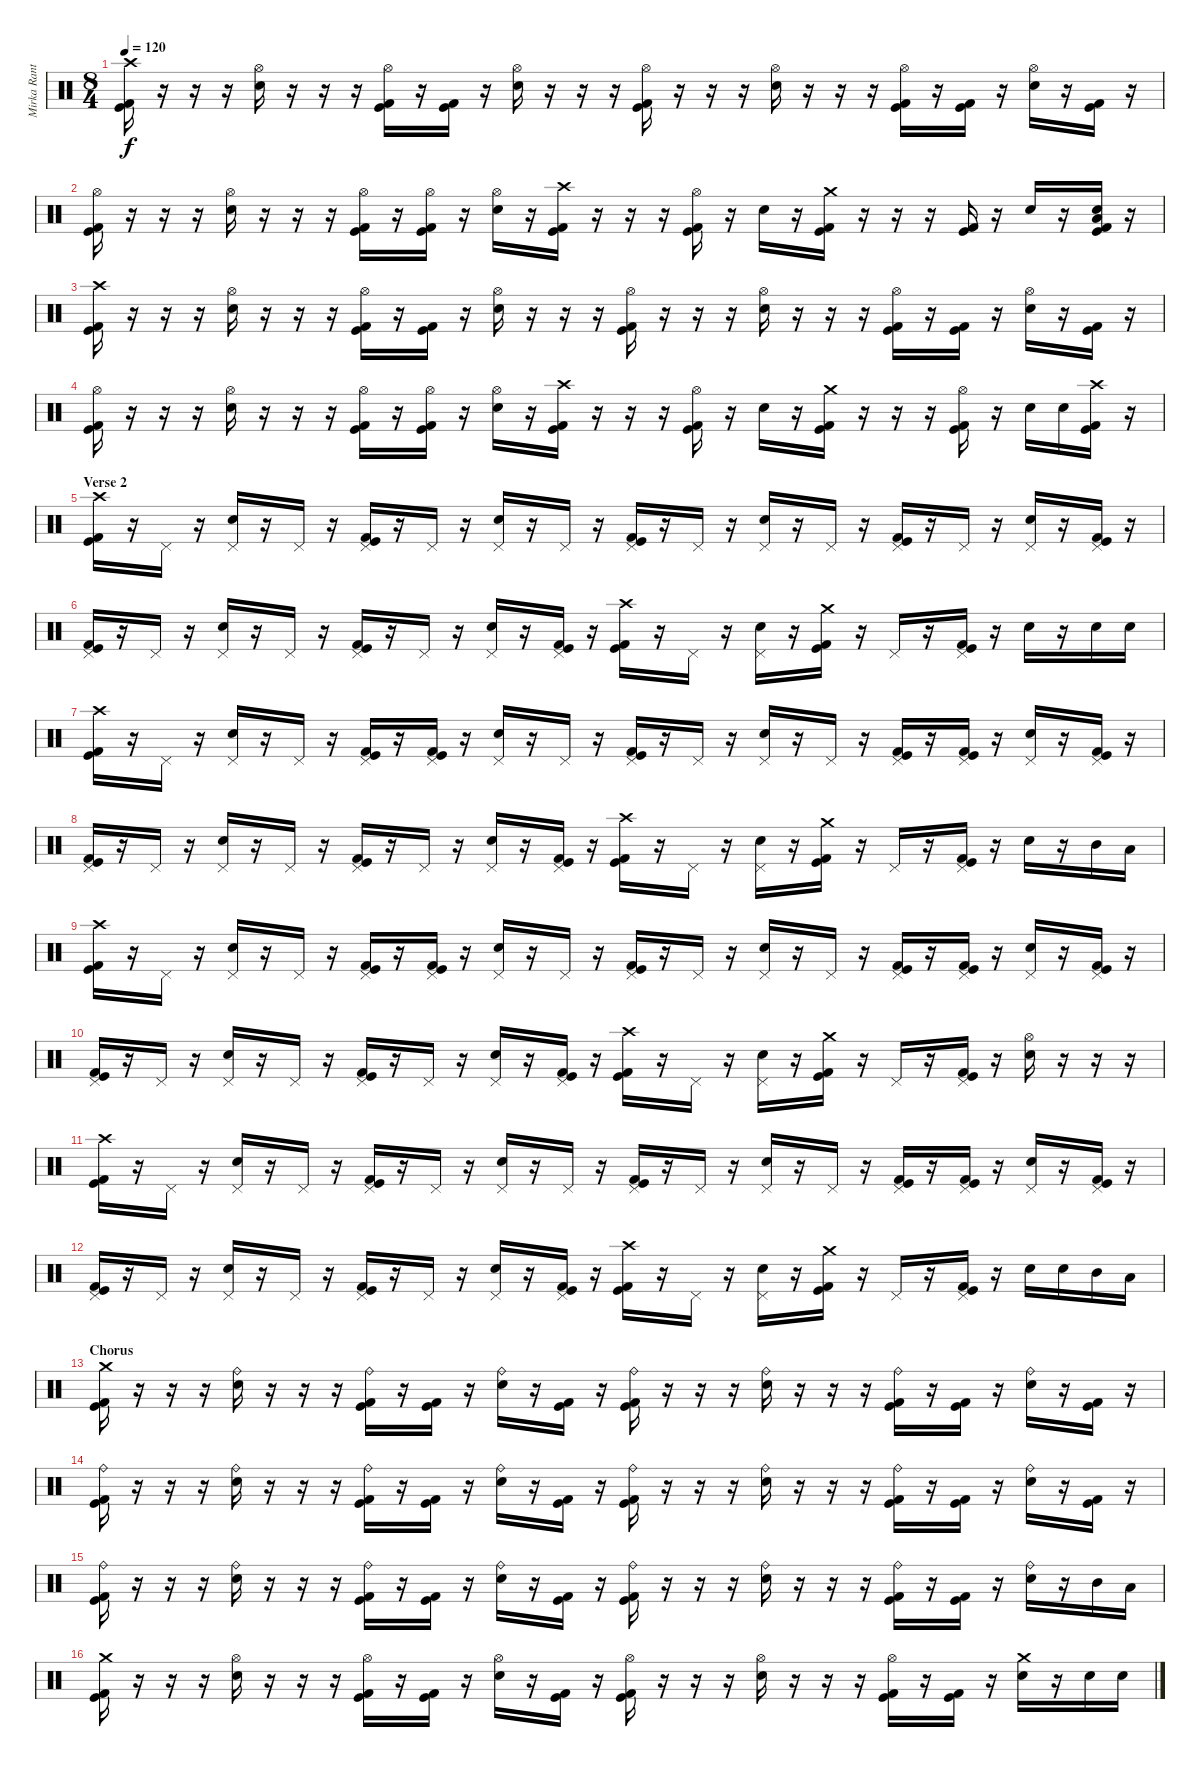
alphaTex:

\track ("Mirka Rantanen" "Mirka Rant") {instrument percussion}
\staff {score}
\articulation defaults
\ts (8 4)
\tempo 120
\clef neutral
\ks c
("Crash high (hit)" "Kick (hit) 2" "Kick (hit)").16{dy f} r.16 r.16 r.16 ("Hi-Hat (open)" "Electric Snare (hit)").16 r.16 r.16 r.16 ("Hi-Hat (open)" "Kick (hit) 2" "Kick (hit)").16 r.16 ("Kick (hit) 2" "Kick (hit)").16 r.16 ("Hi-Hat (open)" "Electric Snare (hit)").16 r.16 r.16 r.16 ("Hi-Hat (open)" "Kick (hit) 2" "Kick (hit)").16 r.16 r.16 r.16 ("Hi-Hat (open)" "Electric Snare (hit)").16 r.16 r.16 r.16 ("Hi-Hat (open)" "Kick (hit) 2" "Kick (hit)").16 r.16 ("Kick (hit) 2" "Kick (hit)").16 r.16 ("Hi-Hat (open)" "Electric Snare (hit)").16 r.16 ("Kick (hit) 2" "Kick (hit)").16 r.16 |
("Hi-Hat (open)" "Kick (hit) 2" "Kick (hit)").16 r.16 r.16 r.16 ("Hi-Hat (open)" "Electric Snare (hit)").16 r.16 r.16 r.16 ("Hi-Hat (open)" "Kick (hit) 2" "Kick (hit)").16 r.16 ("Hi-Hat (open)" "Kick (hit) 2" "Kick (hit)").16 r.16 ("Hi-Hat (open)" "Electric Snare (hit)").16 r.16 ("Crash high (hit)" "Kick (hit) 2" "Kick (hit)").16 r.16 r.16 r.16 ("Hi-Hat (open)" "Kick (hit) 2" "Kick (hit)").16 r.16 "Electric Snare (hit)".16 r.16 ("Crash medium (hit)" "Kick (hit) 2" "Kick (hit)").16 r.16 r.16 r.16 ("Kick (hit) 2" "Kick (hit)").16 r.16 "Electric Snare (hit)".16 r.16 ("Kick (hit) 2" "Kick (hit)" "Electric Snare (hit)" "Low Floor Tom (hit)").16 r.16 |
("Crash high (hit)" "Kick (hit) 2" "Kick (hit)").16 r.16 r.16 r.16 ("Hi-Hat (open)" "Electric Snare (hit)").16 r.16 r.16 r.16 ("Hi-Hat (open)" "Kick (hit) 2" "Kick (hit)").16 r.16 ("Kick (hit) 2" "Kick (hit)").16 r.16 ("Hi-Hat (open)" "Electric Snare (hit)").16 r.16 r.16 r.16 ("Hi-Hat (open)" "Kick (hit) 2" "Kick (hit)").16 r.16 r.16 r.16 ("Hi-Hat (open)" "Electric Snare (hit)").16 r.16 r.16 r.16 ("Hi-Hat (open)" "Kick (hit) 2" "Kick (hit)").16 r.16 ("Kick (hit) 2" "Kick (hit)").16 r.16 ("Hi-Hat (open)" "Electric Snare (hit)").16 r.16 ("Kick (hit) 2" "Kick (hit)").16 r.16 |
("Hi-Hat (open)" "Kick (hit) 2" "Kick (hit)").16 r.16 r.16 r.16 ("Hi-Hat (open)" "Electric Snare (hit)").16 r.16 r.16 r.16 ("Hi-Hat (open)" "Kick (hit) 2" "Kick (hit)").16 r.16 ("Hi-Hat (open)" "Kick (hit) 2" "Kick (hit)").16 r.16 ("Hi-Hat (open)" "Electric Snare (hit)").16 r.16 ("Crash high (hit)" "Kick (hit) 2" "Kick (hit)").16 r.16 r.16 r.16 ("Hi-Hat (open)" "Kick (hit) 2" "Kick (hit)").16 r.16 "Electric Snare (hit)".16 r.16 ("Crash medium (hit)" "Kick (hit) 2" "Kick (hit)").16 r.16 r.16 r.16 ("Hi-Hat (open)" "Kick (hit) 2" "Kick (hit)").16 r.16 "Electric Snare (hit)".16 "Electric Snare (hit)".16 ("Crash high (hit)" "Kick (hit) 2" "Kick (hit)").16 r.16 |
\section ("" "Verse 2")
("Crash high (hit)" "Kick (hit) 2" "Kick (hit)").16 r.16 "Pedal Hi-Hat (hit)".16 r.16 ("Pedal Hi-Hat (hit)" "Electric Snare (hit)").16 r.16 "Pedal Hi-Hat (hit)".16 r.16 ("Pedal Hi-Hat (hit)" "Kick (hit) 2" "Kick (hit)").16 r.16 "Pedal Hi-Hat (hit)".16 r.16 ("Pedal Hi-Hat (hit)" "Electric Snare (hit)").16 r.16 "Pedal Hi-Hat (hit)".16 r.16 ("Pedal Hi-Hat (hit)" "Kick (hit) 2" "Kick (hit)").16 r.16 "Pedal Hi-Hat (hit)".16 r.16 ("Pedal Hi-Hat (hit)" "Electric Snare (hit)").16 r.16 "Pedal Hi-Hat (hit)".16 r.16 ("Pedal Hi-Hat (hit)" "Kick (hit) 2" "Kick (hit)").16 r.16 "Pedal Hi-Hat (hit)".16 r.16 ("Pedal Hi-Hat (hit)" "Electric Snare (hit)").16 r.16 ("Pedal Hi-Hat (hit)" "Kick (hit) 2" "Kick (hit)").16 r.16 |
("Pedal Hi-Hat (hit)" "Kick (hit) 2" "Kick (hit)").16 r.16 "Pedal Hi-Hat (hit)".16 r.16 ("Pedal Hi-Hat (hit)" "Electric Snare (hit)").16 r.16 "Pedal Hi-Hat (hit)".16 r.16 ("Pedal Hi-Hat (hit)" "Kick (hit) 2" "Kick (hit)").16 r.16 "Pedal Hi-Hat (hit)".16 r.16 ("Pedal Hi-Hat (hit)" "Electric Snare (hit)").16 r.16 ("Pedal Hi-Hat (hit)" "Kick (hit) 2" "Kick (hit)").16 r.16 ("Crash high (hit)" "Kick (hit) 2" "Kick (hit)").16 r.16 "Pedal Hi-Hat (hit)".16 r.16 ("Pedal Hi-Hat (hit)" "Electric Snare (hit)").16 r.16 ("Crash medium (hit)" "Kick (hit) 2" "Kick (hit)").16 r.16 "Pedal Hi-Hat (hit)".16 r.16 ("Pedal Hi-Hat (hit)" "Kick (hit)" "Kick (hit) 2").16 r.16 "Electric Snare (hit)".16 r.16 "Electric Snare (hit)".16 "Electric Snare (hit)".16 |
("Crash high (hit)" "Kick (hit) 2" "Kick (hit)").16 r.16 "Pedal Hi-Hat (hit)".16 r.16 ("Pedal Hi-Hat (hit)" "Electric Snare (hit)").16 r.16 "Pedal Hi-Hat (hit)".16 r.16 ("Pedal Hi-Hat (hit)" "Kick (hit) 2" "Kick (hit)").16 r.16 ("Pedal Hi-Hat (hit)" "Kick (hit) 2" "Kick (hit)").16 r.16 ("Pedal Hi-Hat (hit)" "Electric Snare (hit)").16 r.16 "Pedal Hi-Hat (hit)".16 r.16 ("Pedal Hi-Hat (hit)" "Kick (hit) 2" "Kick (hit)").16 r.16 "Pedal Hi-Hat (hit)".16 r.16 ("Pedal Hi-Hat (hit)" "Electric Snare (hit)").16 r.16 "Pedal Hi-Hat (hit)".16 r.16 ("Pedal Hi-Hat (hit)" "Kick (hit) 2" "Kick (hit)").16 r.16 ("Pedal Hi-Hat (hit)" "Kick (hit) 2" "Kick (hit)").16 r.16 ("Pedal Hi-Hat (hit)" "Electric Snare (hit)").16 r.16 ("Pedal Hi-Hat (hit)" "Kick (hit) 2" "Kick (hit)").16 r.16 |
("Pedal Hi-Hat (hit)" "Kick (hit) 2" "Kick (hit)").16 r.16 "Pedal Hi-Hat (hit)".16 r.16 ("Pedal Hi-Hat (hit)" "Electric Snare (hit)").16 r.16 "Pedal Hi-Hat (hit)".16 r.16 ("Pedal Hi-Hat (hit)" "Kick (hit) 2" "Kick (hit)").16 r.16 "Pedal Hi-Hat (hit)".16 r.16 ("Pedal Hi-Hat (hit)" "Electric Snare (hit)").16 r.16 ("Pedal Hi-Hat (hit)" "Kick (hit) 2" "Kick (hit)").16 r.16 ("Crash high (hit)" "Kick (hit) 2" "Kick (hit)").16 r.16 "Pedal Hi-Hat (hit)".16 r.16 ("Pedal Hi-Hat (hit)" "Electric Snare (hit)").16 r.16 ("Crash medium (hit)" "Kick (hit) 2" "Kick (hit)").16 r.16 "Pedal Hi-Hat (hit)".16 r.16 ("Pedal Hi-Hat (hit)" "Kick (hit)" "Kick (hit) 2").16 r.16 "Electric Snare (hit)".16 r.16 "Mid Tom (hit)".16 "Low Tom (hit)".16 |
("Crash high (hit)" "Kick (hit) 2" "Kick (hit)").16 r.16 "Pedal Hi-Hat (hit)".16 r.16 ("Pedal Hi-Hat (hit)" "Electric Snare (hit)").16 r.16 "Pedal Hi-Hat (hit)".16 r.16 ("Pedal Hi-Hat (hit)" "Kick (hit) 2" "Kick (hit)").16 r.16 ("Pedal Hi-Hat (hit)" "Kick (hit) 2" "Kick (hit)").16 r.16 ("Pedal Hi-Hat (hit)" "Electric Snare (hit)").16 r.16 "Pedal Hi-Hat (hit)".16 r.16 ("Pedal Hi-Hat (hit)" "Kick (hit) 2" "Kick (hit)").16 r.16 "Pedal Hi-Hat (hit)".16 r.16 ("Pedal Hi-Hat (hit)" "Electric Snare (hit)").16 r.16 "Pedal Hi-Hat (hit)".16 r.16 ("Pedal Hi-Hat (hit)" "Kick (hit) 2" "Kick (hit)").16 r.16 ("Pedal Hi-Hat (hit)" "Kick (hit) 2" "Kick (hit)").16 r.16 ("Pedal Hi-Hat (hit)" "Electric Snare (hit)").16 r.16 ("Pedal Hi-Hat (hit)" "Kick (hit) 2" "Kick (hit)").16 r.16 |
("Pedal Hi-Hat (hit)" "Kick (hit) 2" "Kick (hit)").16 r.16 "Pedal Hi-Hat (hit)".16 r.16 ("Pedal Hi-Hat (hit)" "Electric Snare (hit)").16 r.16 "Pedal Hi-Hat (hit)".16 r.16 ("Pedal Hi-Hat (hit)" "Kick (hit) 2" "Kick (hit)").16 r.16 "Pedal Hi-Hat (hit)".16 r.16 ("Pedal Hi-Hat (hit)" "Electric Snare (hit)").16 r.16 ("Pedal Hi-Hat (hit)" "Kick (hit) 2" "Kick (hit)").16 r.16 ("Crash high (hit)" "Kick (hit) 2" "Kick (hit)").16 r.16 "Pedal Hi-Hat (hit)".16 r.16 ("Pedal Hi-Hat (hit)" "Electric Snare (hit)").16 r.16 ("Crash medium (hit)" "Kick (hit) 2" "Kick (hit)").16 r.16 "Pedal Hi-Hat (hit)".16 r.16 ("Pedal Hi-Hat (hit)" "Kick (hit)" "Kick (hit) 2").16 r.16 ("Hi-Hat (open)" "Electric Snare (hit)").16 r.16 r.16 r.16 |
("Crash high (hit)" "Kick (hit) 2" "Kick (hit)").16 r.16 "Pedal Hi-Hat (hit)".16 r.16 ("Pedal Hi-Hat (hit)" "Electric Snare (hit)").16 r.16 "Pedal Hi-Hat (hit)".16 r.16 ("Pedal Hi-Hat (hit)" "Kick (hit) 2" "Kick (hit)").16 r.16 "Pedal Hi-Hat (hit)".16 r.16 ("Pedal Hi-Hat (hit)" "Electric Snare (hit)").16 r.16 "Pedal Hi-Hat (hit)".16 r.16 ("Pedal Hi-Hat (hit)" "Kick (hit) 2" "Kick (hit)").16 r.16 "Pedal Hi-Hat (hit)".16 r.16 ("Pedal Hi-Hat (hit)" "Electric Snare (hit)").16 r.16 "Pedal Hi-Hat (hit)".16 r.16 ("Pedal Hi-Hat (hit)" "Kick (hit) 2" "Kick (hit)").16 r.16 ("Pedal Hi-Hat (hit)" "Kick (hit) 2" "Kick (hit)").16 r.16 ("Pedal Hi-Hat (hit)" "Electric Snare (hit)").16 r.16 ("Pedal Hi-Hat (hit)" "Kick (hit) 2" "Kick (hit)").16 r.16 |
("Pedal Hi-Hat (hit)" "Kick (hit) 2" "Kick (hit)").16 r.16 "Pedal Hi-Hat (hit)".16 r.16 ("Pedal Hi-Hat (hit)" "Electric Snare (hit)").16 r.16 "Pedal Hi-Hat (hit)".16 r.16 ("Pedal Hi-Hat (hit)" "Kick (hit) 2" "Kick (hit)").16 r.16 "Pedal Hi-Hat (hit)".16 r.16 ("Pedal Hi-Hat (hit)" "Electric Snare (hit)").16 r.16 ("Pedal Hi-Hat (hit)" "Kick (hit) 2" "Kick (hit)").16 r.16 ("Crash high (hit)" "Kick (hit) 2" "Kick (hit)").16 r.16 "Pedal Hi-Hat (hit)".16 r.16 ("Pedal Hi-Hat (hit)" "Electric Snare (hit)").16 r.16 ("Crash medium (hit)" "Kick (hit) 2" "Kick (hit)").16 r.16 "Pedal Hi-Hat (hit)".16 r.16 ("Pedal Hi-Hat (hit)" "Kick (hit)" "Kick (hit) 2").16 r.16 "Electric Snare (hit)".16 "Electric Snare (hit)".16 "Mid Tom (hit)".16 "Low Tom (hit)".16 |
\section ("" "Chorus")
("Crash medium (hit)" "Kick (hit) 2" "Kick (hit)").16 r.16 r.16 r.16 ("Ride (bell)" "Electric Snare (hit)").16 r.16 r.16 r.16 ("Ride (bell)" "Kick (hit) 2" "Kick (hit)").16 r.16 ("Kick (hit) 2" "Kick (hit)").16 r.16 ("Ride (bell)" "Electric Snare (hit)").16 r.16 ("Kick (hit) 2" "Kick (hit)").16 r.16 ("Ride (bell)" "Kick (hit) 2" "Kick (hit)").16 r.16 r.16 r.16 ("Ride (bell)" "Electric Snare (hit)").16 r.16 r.16 r.16 ("Ride (bell)" "Kick (hit) 2" "Kick (hit)").16 r.16 ("Kick (hit) 2" "Kick (hit)").16 r.16 ("Ride (bell)" "Electric Snare (hit)").16 r.16 ("Kick (hit) 2" "Kick (hit)").16 r.16 |
("Ride (bell)" "Kick (hit) 2" "Kick (hit)").16 r.16 r.16 r.16 ("Ride (bell)" "Electric Snare (hit)").16 r.16 r.16 r.16 ("Ride (bell)" "Kick (hit) 2" "Kick (hit)").16 r.16 ("Kick (hit) 2" "Kick (hit)").16 r.16 ("Ride (bell)" "Electric Snare (hit)").16 r.16 ("Kick (hit) 2" "Kick (hit)").16 r.16 ("Ride (bell)" "Kick (hit) 2" "Kick (hit)").16 r.16 r.16 r.16 ("Ride (bell)" "Electric Snare (hit)").16 r.16 r.16 r.16 ("Ride (bell)" "Kick (hit) 2" "Kick (hit)").16 r.16 ("Kick (hit) 2" "Kick (hit)").16 r.16 ("Ride (bell)" "Electric Snare (hit)").16 r.16 ("Kick (hit) 2" "Kick (hit)").16 r.16 |
("Ride (bell)" "Kick (hit) 2" "Kick (hit)").16 r.16 r.16 r.16 ("Ride (bell)" "Electric Snare (hit)").16 r.16 r.16 r.16 ("Ride (bell)" "Kick (hit) 2" "Kick (hit)").16 r.16 ("Kick (hit) 2" "Kick (hit)").16 r.16 ("Ride (bell)" "Electric Snare (hit)").16 r.16 ("Kick (hit) 2" "Kick (hit)").16 r.16 ("Ride (bell)" "Kick (hit) 2" "Kick (hit)").16 r.16 r.16 r.16 ("Ride (bell)" "Electric Snare (hit)").16 r.16 r.16 r.16 ("Ride (bell)" "Kick (hit) 2" "Kick (hit)").16 r.16 ("Kick (hit) 2" "Kick (hit)").16 r.16 ("Ride (bell)" "Electric Snare (hit)").16 r.16 "Mid Tom (hit)".16 "Low Tom (hit)".16 |
("Crash medium (hit)" "Kick (hit) 2" "Kick (hit)").16 r.16 r.16 r.16 ("Hi-Hat (open)" "Electric Snare (hit)").16 r.16 r.16 r.16 ("Hi-Hat (open)" "Kick (hit) 2" "Kick (hit)").16 r.16 ("Kick (hit) 2" "Kick (hit)").16 r.16 ("Hi-Hat (open)" "Electric Snare (hit)").16 r.16 ("Kick (hit) 2" "Kick (hit)").16 r.16 ("Hi-Hat (open)" "Kick (hit) 2" "Kick (hit)").16 r.16 r.16 r.16 ("Hi-Hat (open)" "Electric Snare (hit)").16 r.16 r.16 r.16 ("Hi-Hat (open)" "Kick (hit) 2" "Kick (hit)").16 r.16 ("Kick (hit) 2" "Kick (hit)").16 r.16 ("Crash medium (hit)" "Electric Snare (hit)").16 r.16 "Electric Snare (hit)".16 "Electric Snare (hit)".16
